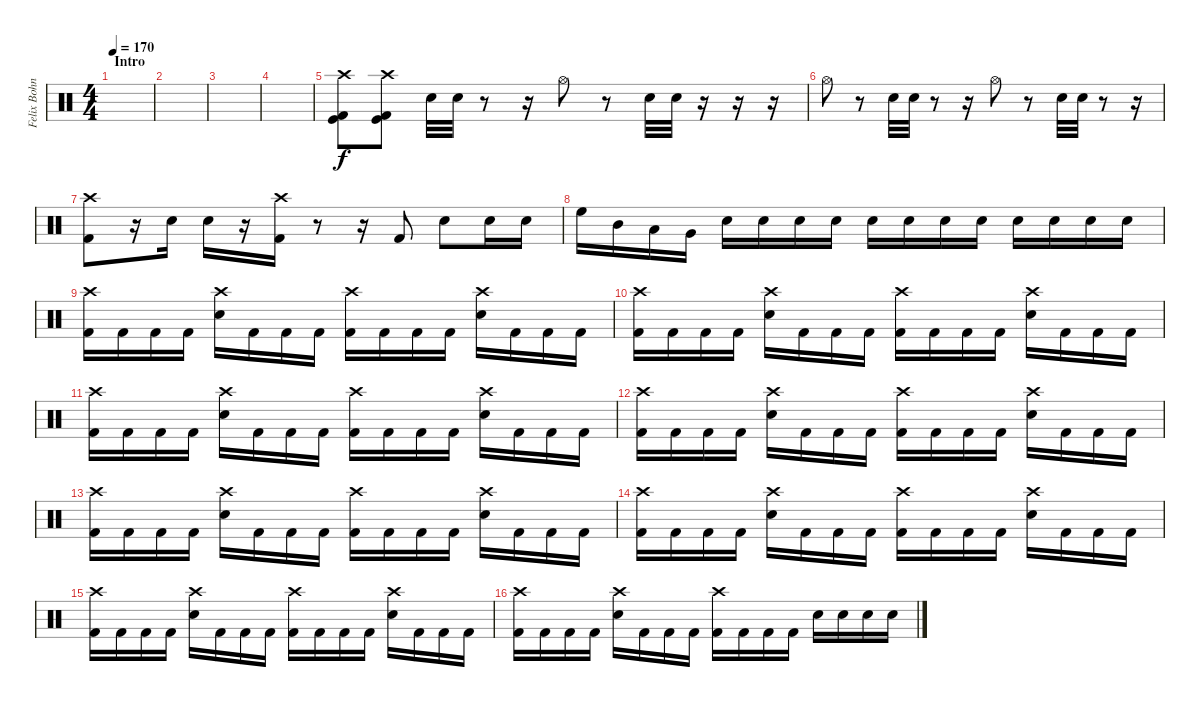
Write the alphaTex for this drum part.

\track ("Felix Bohnke" "Felix Bohn") {instrument percussion}
\staff {score}
\articulation defaults
\ts (4 4)
\section ("" "Intro")
\tempo 170
\clef neutral
\ks c
|
|
|
|
("Crash high (hit)" "Kick (hit)" "Kick (hit) 2").8 ("Crash high (hit)" "Kick (hit)" "Kick (hit) 2").8 "Electric Snare (hit)".32 "Electric Snare (hit)".32 r.8 r.16 "Hi-Hat (open)".8 r.8 "Electric Snare (hit)".32 "Electric Snare (hit)".32 r.16 r.16 r.16 |
"Hi-Hat (open)".8 r.8 "Electric Snare (hit)".32 "Electric Snare (hit)".32 r.8 r.16 "Hi-Hat (open)".8 r.8 "Electric Snare (hit)".32 "Electric Snare (hit)".32 r.8 r.16 |
("Crash high (hit)" "Kick (hit) 2").8 r.16 "Electric Snare (hit)".16 "Electric Snare (hit)".16 r.16 ("Crash high (hit)" "Kick (hit) 2").16 r.8 r.16 "Kick (hit) 2".8 "Electric Snare (hit)".8 "Electric Snare (hit)".16 "Electric Snare (hit)".16 |
"High Floor Tom (hit)".16 "Mid Tom (hit)".16 "Low Tom (hit)".16 "Very Low Tom (hit)".16 "Electric Snare (hit)".16 "Electric Snare (hit)".16 "Electric Snare (hit)".16 "Electric Snare (hit)".16 "Electric Snare (hit)".16{volume 5} "Electric Snare (hit)".16{volume 6} "Electric Snare (hit)".16{volume 7} "Electric Snare (hit)".16{volume 8} "Electric Snare (hit)".16{volume 9} "Electric Snare (hit)".16{volume 11} "Electric Snare (hit)".16{volume 13} "Electric Snare (hit)".16{volume 16} |
("Crash high (hit)" "Kick (hit) 2").16 "Kick (hit) 2".16 "Kick (hit) 2".16 "Kick (hit) 2".16 ("Crash high (hit)" "Electric Snare (hit)").16 "Kick (hit) 2".16 "Kick (hit) 2".16 "Kick (hit) 2".16 ("Crash high (hit)" "Kick (hit) 2").16 "Kick (hit) 2".16 "Kick (hit) 2".16 "Kick (hit) 2".16 ("Crash high (hit)" "Electric Snare (hit)").16 "Kick (hit) 2".16 "Kick (hit) 2".16 "Kick (hit) 2".16 |
("Crash high (hit)" "Kick (hit) 2").16 "Kick (hit) 2".16 "Kick (hit) 2".16 "Kick (hit) 2".16 ("Crash high (hit)" "Electric Snare (hit)").16 "Kick (hit) 2".16 "Kick (hit) 2".16 "Kick (hit) 2".16 ("Crash high (hit)" "Kick (hit) 2").16 "Kick (hit) 2".16 "Kick (hit) 2".16 "Kick (hit) 2".16 ("Crash high (hit)" "Electric Snare (hit)").16 "Kick (hit) 2".16 "Kick (hit) 2".16 "Kick (hit) 2".16 |
("Crash high (hit)" "Kick (hit) 2").16 "Kick (hit) 2".16 "Kick (hit) 2".16 "Kick (hit) 2".16 ("Crash high (hit)" "Electric Snare (hit)").16 "Kick (hit) 2".16 "Kick (hit) 2".16 "Kick (hit) 2".16 ("Crash high (hit)" "Kick (hit) 2").16 "Kick (hit) 2".16 "Kick (hit) 2".16 "Kick (hit) 2".16 ("Crash high (hit)" "Electric Snare (hit)").16 "Kick (hit) 2".16 "Kick (hit) 2".16 "Kick (hit) 2".16 |
("Crash high (hit)" "Kick (hit) 2").16 "Kick (hit) 2".16 "Kick (hit) 2".16 "Kick (hit) 2".16 ("Crash high (hit)" "Electric Snare (hit)").16 "Kick (hit) 2".16 "Kick (hit) 2".16 "Kick (hit) 2".16 ("Crash high (hit)" "Kick (hit) 2").16 "Kick (hit) 2".16 "Kick (hit) 2".16 "Kick (hit) 2".16 ("Crash high (hit)" "Electric Snare (hit)").16 "Kick (hit) 2".16 "Kick (hit) 2".16 "Kick (hit) 2".16 |
("Crash high (hit)" "Kick (hit) 2").16 "Kick (hit) 2".16 "Kick (hit) 2".16 "Kick (hit) 2".16 ("Crash high (hit)" "Electric Snare (hit)").16 "Kick (hit) 2".16 "Kick (hit) 2".16 "Kick (hit) 2".16 ("Crash high (hit)" "Kick (hit) 2").16 "Kick (hit) 2".16 "Kick (hit) 2".16 "Kick (hit) 2".16 ("Crash high (hit)" "Electric Snare (hit)").16 "Kick (hit) 2".16 "Kick (hit) 2".16 "Kick (hit) 2".16 |
("Crash high (hit)" "Kick (hit) 2").16 "Kick (hit) 2".16 "Kick (hit) 2".16 "Kick (hit) 2".16 ("Crash high (hit)" "Electric Snare (hit)").16 "Kick (hit) 2".16 "Kick (hit) 2".16 "Kick (hit) 2".16 ("Crash high (hit)" "Kick (hit) 2").16 "Kick (hit) 2".16 "Kick (hit) 2".16 "Kick (hit) 2".16 ("Crash high (hit)" "Electric Snare (hit)").16 "Kick (hit) 2".16 "Kick (hit) 2".16 "Kick (hit) 2".16 |
("Crash high (hit)" "Kick (hit) 2").16 "Kick (hit) 2".16 "Kick (hit) 2".16 "Kick (hit) 2".16 ("Crash high (hit)" "Electric Snare (hit)").16 "Kick (hit) 2".16 "Kick (hit) 2".16 "Kick (hit) 2".16 ("Crash high (hit)" "Kick (hit) 2").16 "Kick (hit) 2".16 "Kick (hit) 2".16 "Kick (hit) 2".16 ("Crash high (hit)" "Electric Snare (hit)").16 "Kick (hit) 2".16 "Kick (hit) 2".16 "Kick (hit) 2".16 |
("Crash high (hit)" "Kick (hit) 2").16 "Kick (hit) 2".16 "Kick (hit) 2".16 "Kick (hit) 2".16 ("Crash high (hit)" "Electric Snare (hit)").16 "Kick (hit) 2".16 "Kick (hit) 2".16 "Kick (hit) 2".16 ("Crash high (hit)" "Kick (hit) 2").16 "Kick (hit) 2".16 "Kick (hit) 2".16 "Kick (hit) 2".16 "Electric Snare (hit)".16 "Electric Snare (hit)".16 "Electric Snare (hit)".16 "Electric Snare (hit)".16
